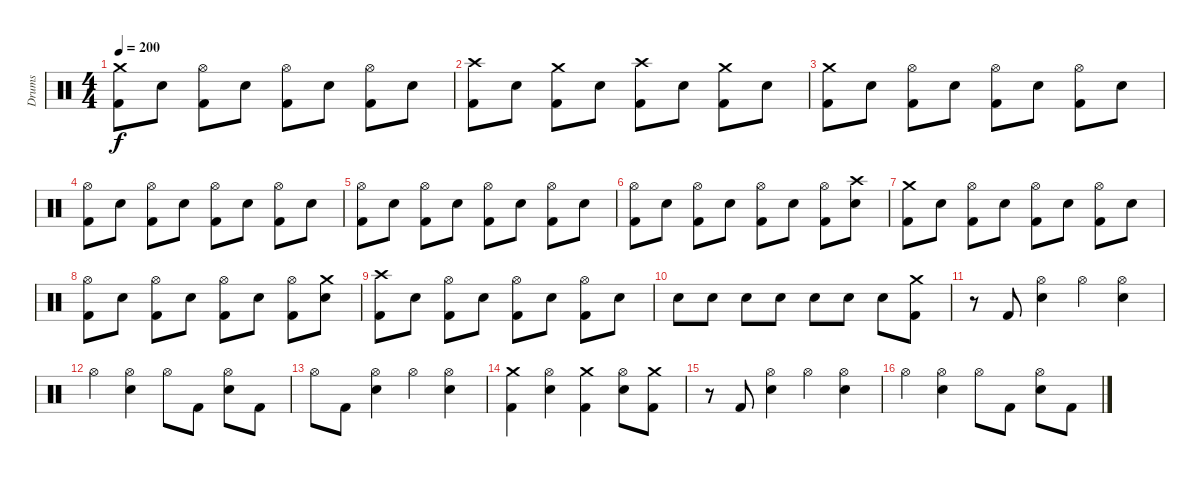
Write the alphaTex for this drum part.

\track ("Drums" "Drums") {instrument percussion}
\staff {score}
\articulation defaults
\ts (4 4)
\tempo 200
\clef neutral
\ks c
("Crash medium (hit)" "Kick (hit) 2").8{dy f} "Electric Snare (hit)".8 ("Hi-Hat (open)" "Kick (hit) 2").8 "Electric Snare (hit)".8 ("Hi-Hat (open)" "Kick (hit) 2").8 "Electric Snare (hit)".8 ("Hi-Hat (open)" "Kick (hit) 2").8 "Electric Snare (hit)".8 |
("Crash high (hit)" "Kick (hit) 2").8 "Electric Snare (hit)".8 ("Crash medium (hit)" "Kick (hit) 2").8 "Electric Snare (hit)".8 ("Crash high (hit)" "Kick (hit) 2").8 "Electric Snare (hit)".8 ("Crash medium (hit)" "Kick (hit) 2").8 "Electric Snare (hit)".8 |
("Crash medium (hit)" "Kick (hit) 2").8 "Electric Snare (hit)".8 ("Hi-Hat (open)" "Kick (hit) 2").8 "Electric Snare (hit)".8 ("Hi-Hat (open)" "Kick (hit) 2").8 "Electric Snare (hit)".8 ("Hi-Hat (open)" "Kick (hit) 2").8 "Electric Snare (hit)".8 |
("Hi-Hat (open)" "Kick (hit) 2").8 "Electric Snare (hit)".8 ("Hi-Hat (open)" "Kick (hit) 2").8 "Electric Snare (hit)".8 ("Hi-Hat (open)" "Kick (hit) 2").8 "Electric Snare (hit)".8 ("Hi-Hat (open)" "Kick (hit) 2").8 "Electric Snare (hit)".8 |
("Hi-Hat (open)" "Kick (hit) 2").8 "Electric Snare (hit)".8 ("Hi-Hat (open)" "Kick (hit) 2").8 "Electric Snare (hit)".8 ("Hi-Hat (open)" "Kick (hit) 2").8 "Electric Snare (hit)".8 ("Hi-Hat (open)" "Kick (hit) 2").8 "Electric Snare (hit)".8 |
("Hi-Hat (open)" "Kick (hit) 2").8 "Electric Snare (hit)".8 ("Hi-Hat (open)" "Kick (hit) 2").8 "Electric Snare (hit)".8 ("Hi-Hat (open)" "Kick (hit) 2").8 "Electric Snare (hit)".8 ("Hi-Hat (open)" "Kick (hit) 2").8 ("Crash high (hit)" "Electric Snare (hit)").8 |
("Crash medium (hit)" "Kick (hit) 2").8 "Electric Snare (hit)".8 ("Hi-Hat (open)" "Kick (hit) 2").8 "Electric Snare (hit)".8 ("Hi-Hat (open)" "Kick (hit) 2").8 "Electric Snare (hit)".8 ("Hi-Hat (open)" "Kick (hit) 2").8 "Electric Snare (hit)".8 |
("Hi-Hat (open)" "Kick (hit) 2").8 "Electric Snare (hit)".8 ("Hi-Hat (open)" "Kick (hit) 2").8 "Electric Snare (hit)".8 ("Hi-Hat (open)" "Kick (hit) 2").8 "Electric Snare (hit)".8 ("Hi-Hat (open)" "Kick (hit) 2").8 ("Crash medium (hit)" "Electric Snare (hit)").8 |
("Crash high (hit)" "Kick (hit) 2").8 "Electric Snare (hit)".8 ("Hi-Hat (open)" "Kick (hit) 2").8 "Electric Snare (hit)".8 ("Hi-Hat (open)" "Kick (hit) 2").8 "Electric Snare (hit)".8 ("Hi-Hat (open)" "Kick (hit) 2").8 "Electric Snare (hit)".8 |
"Electric Snare (hit)".8 "Electric Snare (hit)".8 "Electric Snare (hit)".8 "Electric Snare (hit)".8 "Electric Snare (hit)".8 "Electric Snare (hit)".8 "Electric Snare (hit)".8 ("Crash medium (hit)" "Kick (hit) 2").8 |
r.8 "Kick (hit) 2".8 ("Hi-Hat (open)" "Electric Snare (hit)").4 "Hi-Hat (open)".4 ("Hi-Hat (open)" "Electric Snare (hit)").4 |
"Hi-Hat (open)".4 ("Hi-Hat (open)" "Electric Snare (hit)").4 "Hi-Hat (open)".8 "Kick (hit) 2".8 ("Hi-Hat (open)" "Electric Snare (hit)").8 "Kick (hit) 2".8 |
"Hi-Hat (open)".8 "Kick (hit) 2".8 ("Hi-Hat (open)" "Electric Snare (hit)").4 "Hi-Hat (open)".4 ("Hi-Hat (open)" "Electric Snare (hit)").4 |
("Crash medium (hit)" "Kick (hit) 2").4 ("Hi-Hat (open)" "Electric Snare (hit)").4 ("Crash medium (hit)" "Kick (hit) 2").4 ("Hi-Hat (open)" "Electric Snare (hit)").8 ("Crash medium (hit)" "Kick (hit) 2").8 |
r.8 "Kick (hit) 2".8 ("Hi-Hat (open)" "Electric Snare (hit)").4 "Hi-Hat (open)".4 ("Hi-Hat (open)" "Electric Snare (hit)").4 |
"Hi-Hat (open)".4 ("Hi-Hat (open)" "Electric Snare (hit)").4 "Hi-Hat (open)".8 "Kick (hit) 2".8 ("Hi-Hat (open)" "Electric Snare (hit)").8 "Kick (hit) 2".8
